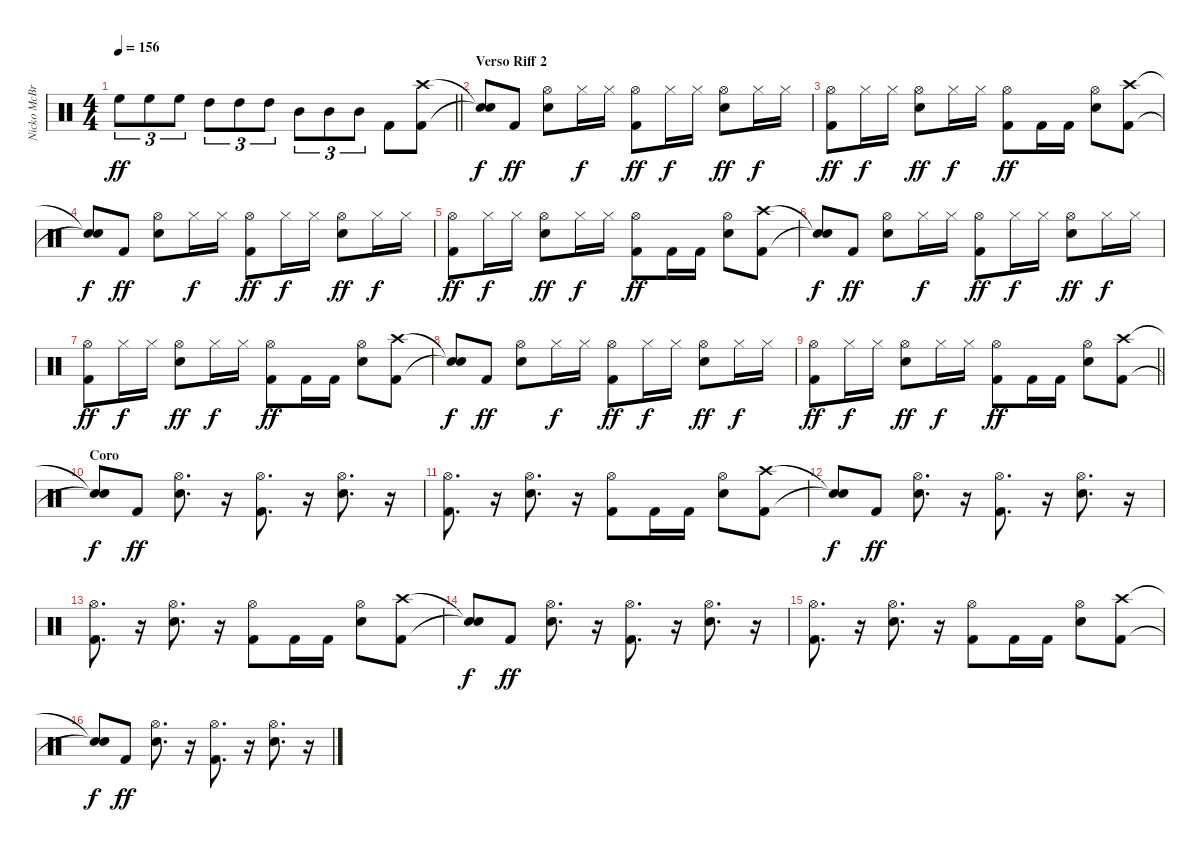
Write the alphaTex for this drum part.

\track ("Nicko McBrain" "Nicko McBr") {instrument percussion}
\staff {score}
\articulation defaults
\ts (4 4)
\tempo 156
\clef neutral
\barLineRight lightlight
\ks c "High Floor Tom (hit)".8{tu (3 2) dy ff} "High Floor Tom (hit)".8{tu (3 2)} "High Floor Tom (hit)".8{tu (3 2)} "High Tom (hit)".8{tu (3 2)} "High Tom (hit)".8{tu (3 2)} "High Tom (hit)".8{tu (3 2)} "Mid Tom (hit)".8{tu (3 2)} "Mid Tom (hit)".8{tu (3 2)} "Mid Tom (hit)".8{tu (3 2)} "Kick (hit) 2".8
("Kick (hit) 2" "Crash high (hit)").8 |
\section ("" "Verso Riff 2")
("Snare (hit)"{t} "Snare (hit)"{t}).8{dy f} "Kick (hit) 2".8{dy ff} ("Snare (hit) 2" "Hi-Hat (open)").8 "Hi-Hat (closed)".16{dy f} "Hi-Hat (closed)".16 ("Kick (hit) 2" "Hi-Hat (open)").8{dy ff} "Hi-Hat (closed)".16{dy f} "Hi-Hat (closed)".16 ("Snare (hit) 2" "Hi-Hat (open)").8{dy ff} "Hi-Hat (closed)".16{dy f} "Hi-Hat (closed)".16 |
("Kick (hit) 2" "Hi-Hat (open)").8{dy ff} "Hi-Hat (closed)".16{dy f} "Hi-Hat (closed)".16 ("Snare (hit) 2" "Hi-Hat (open)").8{dy ff} "Hi-Hat (closed)".16{dy f} "Hi-Hat (closed)".16 ("Kick (hit) 2" "Hi-Hat (open)").8{dy ff} "Kick (hit) 2".16 "Kick (hit) 2".16 ("Snare (hit) 2" "Hi-Hat (open)").8 ("Kick (hit) 2" "Crash high (hit)").8 |
("Snare (hit)"{t} "Snare (hit)"{t}).8{dy f} "Kick (hit) 2".8{dy ff} ("Snare (hit) 2" "Hi-Hat (open)").8 "Hi-Hat (closed)".16{dy f} "Hi-Hat (closed)".16 ("Kick (hit) 2" "Hi-Hat (open)").8{dy ff} "Hi-Hat (closed)".16{dy f} "Hi-Hat (closed)".16 ("Snare (hit) 2" "Hi-Hat (open)").8{dy ff} "Hi-Hat (closed)".16{dy f} "Hi-Hat (closed)".16 |
("Kick (hit) 2" "Hi-Hat (open)").8{dy ff} "Hi-Hat (closed)".16{dy f} "Hi-Hat (closed)".16 ("Snare (hit) 2" "Hi-Hat (open)").8{dy ff} "Hi-Hat (closed)".16{dy f} "Hi-Hat (closed)".16 ("Kick (hit) 2" "Hi-Hat (open)").8{dy ff} "Kick (hit) 2".16 "Kick (hit) 2".16 ("Snare (hit) 2" "Hi-Hat (open)").8 ("Kick (hit) 2" "Crash high (hit)").8 |
("Snare (hit)"{t} "Snare (hit)"{t}).8{dy f} "Kick (hit) 2".8{dy ff} ("Snare (hit) 2" "Hi-Hat (open)").8 "Hi-Hat (closed)".16{dy f} "Hi-Hat (closed)".16 ("Kick (hit) 2" "Hi-Hat (open)").8{dy ff} "Hi-Hat (closed)".16{dy f} "Hi-Hat (closed)".16 ("Snare (hit) 2" "Hi-Hat (open)").8{dy ff} "Hi-Hat (closed)".16{dy f} "Hi-Hat (closed)".16 |
("Kick (hit) 2" "Hi-Hat (open)").8{dy ff} "Hi-Hat (closed)".16{dy f} "Hi-Hat (closed)".16 ("Snare (hit) 2" "Hi-Hat (open)").8{dy ff} "Hi-Hat (closed)".16{dy f} "Hi-Hat (closed)".16 ("Kick (hit) 2" "Hi-Hat (open)").8{dy ff} "Kick (hit) 2".16 "Kick (hit) 2".16 ("Snare (hit) 2" "Hi-Hat (open)").8 ("Kick (hit) 2" "Crash high (hit)").8 |
("Snare (hit)"{t} "Snare (hit)"{t}).8{dy f} "Kick (hit) 2".8{dy ff} ("Snare (hit) 2" "Hi-Hat (open)").8 "Hi-Hat (closed)".16{dy f} "Hi-Hat (closed)".16 ("Kick (hit) 2" "Hi-Hat (open)").8{dy ff} "Hi-Hat (closed)".16{dy f} "Hi-Hat (closed)".16 ("Snare (hit) 2" "Hi-Hat (open)").8{dy ff} "Hi-Hat (closed)".16{dy f} "Hi-Hat (closed)".16 |
\barLineRight lightlight
("Kick (hit) 2" "Hi-Hat (open)").8{dy ff} "Hi-Hat (closed)".16{dy f} "Hi-Hat (closed)".16 ("Snare (hit) 2" "Hi-Hat (open)").8{dy ff} "Hi-Hat (closed)".16{dy f} "Hi-Hat (closed)".16 ("Kick (hit) 2" "Hi-Hat (open)").8{dy ff} "Kick (hit) 2".16 "Kick (hit) 2".16 ("Snare (hit) 2" "Hi-Hat (open)").8 ("Kick (hit) 2" "Crash high (hit)").8 |
\section ("" "Coro")
("Snare (hit)"{t} "Snare (hit)"{t}).8{dy f} "Kick (hit) 2".8{dy ff} ("Snare (hit) 2" "Hi-Hat (open)").8{d} r.16 ("Kick (hit) 2" "Hi-Hat (open)").8{d} r.16 ("Snare (hit) 2" "Hi-Hat (open)").8{d} r.16 |
("Kick (hit) 2" "Hi-Hat (open)").8{d} r.16 ("Snare (hit) 2" "Hi-Hat (open)").8{d} r.16 ("Kick (hit) 2" "Hi-Hat (open)").8 "Kick (hit) 2".16 "Kick (hit) 2".16 ("Snare (hit) 2" "Hi-Hat (open)").8 ("Kick (hit) 2" "Crash high (hit)").8 |
("Snare (hit)"{t} "Snare (hit)"{t}).8{dy f} "Kick (hit) 2".8{dy ff} ("Snare (hit) 2" "Hi-Hat (open)").8{d} r.16 ("Kick (hit) 2" "Hi-Hat (open)").8{d} r.16 ("Snare (hit) 2" "Hi-Hat (open)").8{d} r.16 |
("Kick (hit) 2" "Hi-Hat (open)").8{d} r.16 ("Snare (hit) 2" "Hi-Hat (open)").8{d} r.16 ("Kick (hit) 2" "Hi-Hat (open)").8 "Kick (hit) 2".16 "Kick (hit) 2".16 ("Snare (hit) 2" "Hi-Hat (open)").8 ("Kick (hit) 2" "Crash high (hit)").8 |
("Snare (hit)"{t} "Snare (hit)"{t}).8{dy f} "Kick (hit) 2".8{dy ff} ("Snare (hit) 2" "Hi-Hat (open)").8{d} r.16 ("Kick (hit) 2" "Hi-Hat (open)").8{d} r.16 ("Snare (hit) 2" "Hi-Hat (open)").8{d} r.16 |
("Kick (hit) 2" "Hi-Hat (open)").8{d} r.16 ("Snare (hit) 2" "Hi-Hat (open)").8{d} r.16 ("Kick (hit) 2" "Hi-Hat (open)").8 "Kick (hit) 2".16 "Kick (hit) 2".16 ("Snare (hit) 2" "Hi-Hat (open)").8 ("Kick (hit) 2" "Crash high (hit)").8 |
("Snare (hit)"{t} "Snare (hit)"{t}).8{dy f} "Kick (hit) 2".8{dy ff} ("Snare (hit) 2" "Hi-Hat (open)").8{d} r.16 ("Kick (hit) 2" "Hi-Hat (open)").8{d} r.16 ("Snare (hit) 2" "Hi-Hat (open)").8{d} r.16
